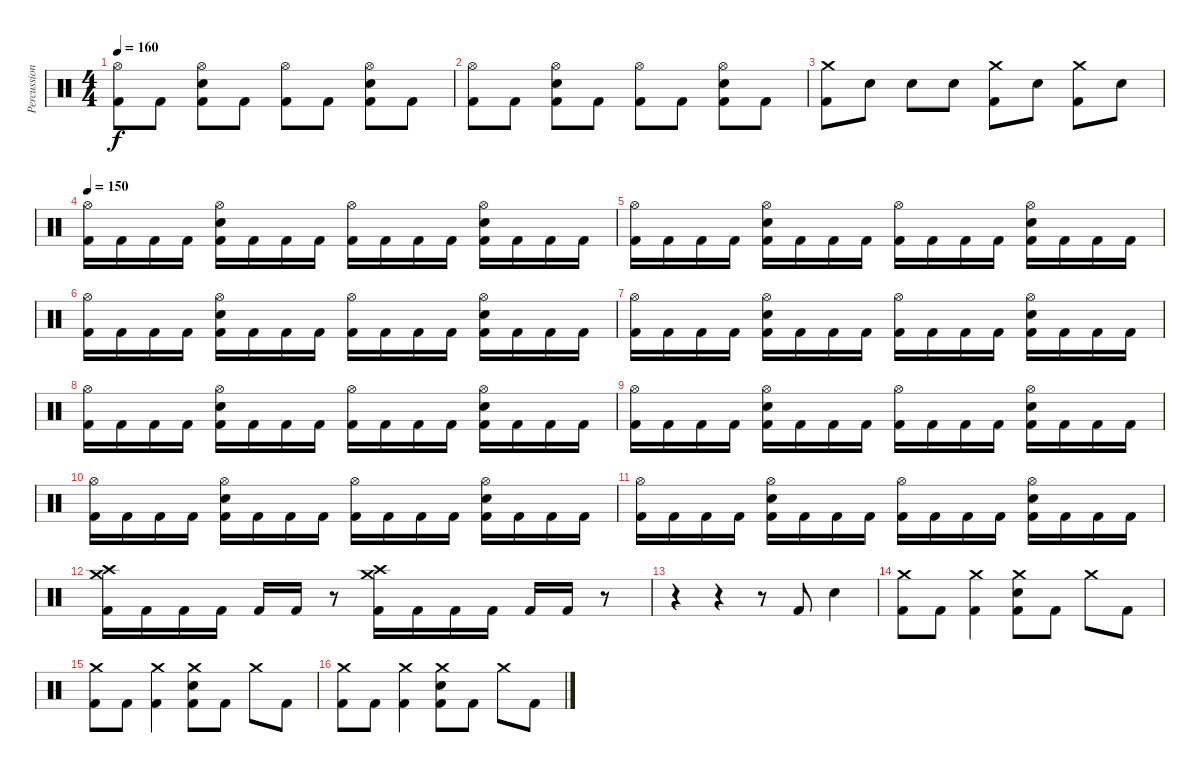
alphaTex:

\track ("Percussion" "Percussion") {instrument percussion}
\staff {score}
\articulation defaults
\ts (4 4)
\tempo 160
\clef neutral
\ks c
("Hi-Hat (open)" "Kick (hit) 2").8{dy f} "Kick (hit) 2".8 ("Hi-Hat (open)" "Electric Snare (hit)" "Kick (hit) 2").8 "Kick (hit) 2".8 ("Hi-Hat (open)" "Kick (hit) 2").8 "Kick (hit) 2".8 ("Hi-Hat (open)" "Electric Snare (hit)" "Kick (hit) 2").8 "Kick (hit) 2".8 |
("Hi-Hat (open)" "Kick (hit) 2").8 "Kick (hit) 2".8 ("Hi-Hat (open)" "Electric Snare (hit)" "Kick (hit) 2").8 "Kick (hit) 2".8 ("Hi-Hat (open)" "Kick (hit) 2").8 "Kick (hit) 2".8 ("Hi-Hat (open)" "Electric Snare (hit)" "Kick (hit) 2").8 "Kick (hit) 2".8 |
("Crash medium (hit)" "Kick (hit) 2").8 "Electric Snare (hit)".8 "Electric Snare (hit)".8 "Electric Snare (hit)".8 ("Crash medium (hit)" "Kick (hit) 2").8 "Electric Snare (hit)".8 ("Crash medium (hit)" "Kick (hit) 2").8 "Electric Snare (hit)".8 |
\tempo 150
("Hi-Hat (open)" "Kick (hit) 2").16 "Kick (hit) 2".16 "Kick (hit) 2".16 "Kick (hit) 2".16 ("Hi-Hat (open)" "Electric Snare (hit)" "Kick (hit) 2").16 "Kick (hit) 2".16 "Kick (hit) 2".16 "Kick (hit) 2".16 ("Hi-Hat (open)" "Kick (hit) 2").16 "Kick (hit) 2".16 "Kick (hit) 2".16 "Kick (hit) 2".16 ("Hi-Hat (open)" "Electric Snare (hit)" "Kick (hit) 2").16 "Kick (hit) 2".16 "Kick (hit) 2".16 "Kick (hit) 2".16 |
("Hi-Hat (open)" "Kick (hit) 2").16 "Kick (hit) 2".16 "Kick (hit) 2".16 "Kick (hit) 2".16 ("Hi-Hat (open)" "Electric Snare (hit)" "Kick (hit) 2").16 "Kick (hit) 2".16 "Kick (hit) 2".16 "Kick (hit) 2".16 ("Hi-Hat (open)" "Kick (hit) 2").16 "Kick (hit) 2".16 "Kick (hit) 2".16 "Kick (hit) 2".16 ("Hi-Hat (open)" "Electric Snare (hit)" "Kick (hit) 2").16 "Kick (hit) 2".16 "Kick (hit) 2".16 "Kick (hit) 2".16 |
("Hi-Hat (open)" "Kick (hit) 2").16 "Kick (hit) 2".16 "Kick (hit) 2".16 "Kick (hit) 2".16 ("Hi-Hat (open)" "Electric Snare (hit)" "Kick (hit) 2").16 "Kick (hit) 2".16 "Kick (hit) 2".16 "Kick (hit) 2".16 ("Hi-Hat (open)" "Kick (hit) 2").16 "Kick (hit) 2".16 "Kick (hit) 2".16 "Kick (hit) 2".16 ("Hi-Hat (open)" "Electric Snare (hit)" "Kick (hit) 2").16 "Kick (hit) 2".16 "Kick (hit) 2".16 "Kick (hit) 2".16 |
("Hi-Hat (open)" "Kick (hit) 2").16 "Kick (hit) 2".16 "Kick (hit) 2".16 "Kick (hit) 2".16 ("Hi-Hat (open)" "Electric Snare (hit)" "Kick (hit) 2").16 "Kick (hit) 2".16 "Kick (hit) 2".16 "Kick (hit) 2".16 ("Hi-Hat (open)" "Kick (hit) 2").16 "Kick (hit) 2".16 "Kick (hit) 2".16 "Kick (hit) 2".16 ("Hi-Hat (open)" "Electric Snare (hit)" "Kick (hit) 2").16 "Kick (hit) 2".16 "Kick (hit) 2".16 "Kick (hit) 2".16 |
("Hi-Hat (open)" "Kick (hit) 2").16 "Kick (hit) 2".16 "Kick (hit) 2".16 "Kick (hit) 2".16 ("Hi-Hat (open)" "Electric Snare (hit)" "Kick (hit) 2").16 "Kick (hit) 2".16 "Kick (hit) 2".16 "Kick (hit) 2".16 ("Hi-Hat (open)" "Kick (hit) 2").16 "Kick (hit) 2".16 "Kick (hit) 2".16 "Kick (hit) 2".16 ("Hi-Hat (open)" "Electric Snare (hit)" "Kick (hit) 2").16 "Kick (hit) 2".16 "Kick (hit) 2".16 "Kick (hit) 2".16 |
("Hi-Hat (open)" "Kick (hit) 2").16 "Kick (hit) 2".16 "Kick (hit) 2".16 "Kick (hit) 2".16 ("Hi-Hat (open)" "Electric Snare (hit)" "Kick (hit) 2").16 "Kick (hit) 2".16 "Kick (hit) 2".16 "Kick (hit) 2".16 ("Hi-Hat (open)" "Kick (hit) 2").16 "Kick (hit) 2".16 "Kick (hit) 2".16 "Kick (hit) 2".16 ("Hi-Hat (open)" "Electric Snare (hit)" "Kick (hit) 2").16 "Kick (hit) 2".16 "Kick (hit) 2".16 "Kick (hit) 2".16 |
("Hi-Hat (open)" "Kick (hit) 2").16 "Kick (hit) 2".16 "Kick (hit) 2".16 "Kick (hit) 2".16 ("Hi-Hat (open)" "Electric Snare (hit)" "Kick (hit) 2").16 "Kick (hit) 2".16 "Kick (hit) 2".16 "Kick (hit) 2".16 ("Hi-Hat (open)" "Kick (hit) 2").16 "Kick (hit) 2".16 "Kick (hit) 2".16 "Kick (hit) 2".16 ("Hi-Hat (open)" "Electric Snare (hit)" "Kick (hit) 2").16 "Kick (hit) 2".16 "Kick (hit) 2".16 "Kick (hit) 2".16 |
("Hi-Hat (open)" "Kick (hit) 2").16 "Kick (hit) 2".16 "Kick (hit) 2".16 "Kick (hit) 2".16 ("Hi-Hat (open)" "Electric Snare (hit)" "Kick (hit) 2").16 "Kick (hit) 2".16 "Kick (hit) 2".16 "Kick (hit) 2".16 ("Hi-Hat (open)" "Kick (hit) 2").16 "Kick (hit) 2".16 "Kick (hit) 2".16 "Kick (hit) 2".16 ("Hi-Hat (open)" "Electric Snare (hit)" "Kick (hit) 2").16 "Kick (hit) 2".16 "Kick (hit) 2".16 "Kick (hit) 2".16 |
("Crash medium (hit)" "Crash high (hit)" "Kick (hit) 2").16 "Kick (hit) 2".16 "Kick (hit) 2".16 "Kick (hit) 2".16 "Kick (hit) 2".16 "Kick (hit) 2".16 r.8 ("Crash medium (hit)" "Crash high (hit)" "Kick (hit) 2").16 "Kick (hit) 2".16 "Kick (hit) 2".16 "Kick (hit) 2".16 "Kick (hit) 2".16 "Kick (hit) 2".16 r.8 |
r.4 r.4 r.8 "Kick (hit) 2".8 "Electric Snare (hit)".4 |
("Crash medium (hit)" "Kick (hit) 2").8 "Kick (hit) 2".8 ("Crash medium (hit)" "Kick (hit) 2").4 ("Crash medium (hit)" "Electric Snare (hit)" "Kick (hit) 2").8 "Kick (hit) 2".8 "Crash medium (hit)".8 "Kick (hit) 2".8 |
("Crash medium (hit)" "Kick (hit) 2").8 "Kick (hit) 2".8 ("Crash medium (hit)" "Kick (hit) 2").4 ("Crash medium (hit)" "Electric Snare (hit)" "Kick (hit) 2").8 "Kick (hit) 2".8 "Crash medium (hit)".8 "Kick (hit) 2".8 |
("Crash medium (hit)" "Kick (hit) 2").8 "Kick (hit) 2".8 ("Crash medium (hit)" "Kick (hit) 2").4 ("Crash medium (hit)" "Electric Snare (hit)" "Kick (hit) 2").8 "Kick (hit) 2".8 "Crash medium (hit)".8 "Kick (hit) 2".8
